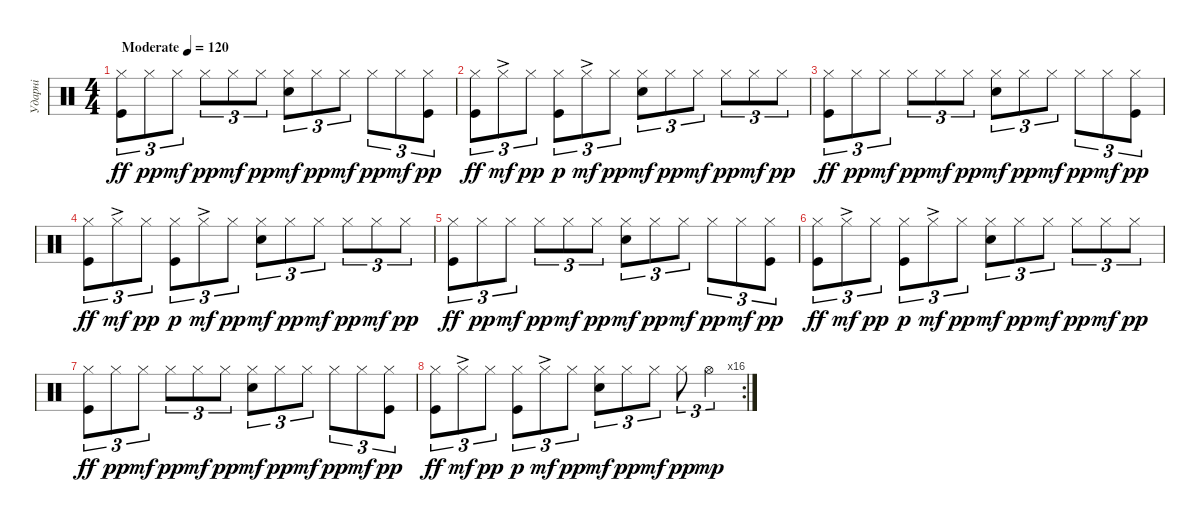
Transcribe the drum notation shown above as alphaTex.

\track ("Ударні" "Ударні") {instrument percussion}
\staff {score}
\articulation defaults
\ts (4 4)
\tempo (120 "Moderate")
\clef neutral
\ks c
("Hi-Hat (closed)" "Kick (hit)").8{tu (3 2) dy ff} "Hi-Hat (closed)".8{tu (3 2) dy pp} "Hi-Hat (closed)".8{tu (3 2) dy mf} "Hi-Hat (closed)".8{tu (3 2) dy pp} "Hi-Hat (closed)".8{tu (3 2) dy mf} "Hi-Hat (closed)".8{tu (3 2) dy pp} ("Hi-Hat (closed)" "Snare (hit) 2").8{tu (3 2) dy mf} "Hi-Hat (closed)".8{tu (3 2) dy pp} "Hi-Hat (closed)".8{tu (3 2) dy mf} "Hi-Hat (closed)".8{tu (3 2) dy pp} "Hi-Hat (closed)".8{tu (3 2) dy mf} ("Hi-Hat (closed)" "Kick (hit)").8{tu (3 2) dy pp} |
("Hi-Hat (closed)" "Kick (hit)").8{tu (3 2) dy ff} "Hi-Hat (closed)"{ac}.8{tu (3 2) dy mf} "Hi-Hat (closed)".8{tu (3 2) dy pp} ("Hi-Hat (closed)" "Kick (hit)").8{tu (3 2) dy p} "Hi-Hat (closed)"{ac}.8{tu (3 2) dy mf} "Hi-Hat (closed)".8{tu (3 2) dy pp} ("Hi-Hat (closed)" "Snare (hit) 2").8{tu (3 2) dy mf} "Hi-Hat (closed)".8{tu (3 2) dy pp} "Hi-Hat (closed)".8{tu (3 2) dy mf} "Hi-Hat (closed)".8{tu (3 2) dy pp} "Hi-Hat (closed)".8{tu (3 2) dy mf} "Hi-Hat (closed)".8{tu (3 2) dy pp} |
("Hi-Hat (closed)" "Kick (hit)").8{tu (3 2) dy ff} "Hi-Hat (closed)".8{tu (3 2) dy pp} "Hi-Hat (closed)".8{tu (3 2) dy mf} "Hi-Hat (closed)".8{tu (3 2) dy pp} "Hi-Hat (closed)".8{tu (3 2) dy mf} "Hi-Hat (closed)".8{tu (3 2) dy pp} ("Hi-Hat (closed)" "Snare (hit) 2").8{tu (3 2) dy mf} "Hi-Hat (closed)".8{tu (3 2) dy pp} "Hi-Hat (closed)".8{tu (3 2) dy mf} "Hi-Hat (closed)".8{tu (3 2) dy pp} "Hi-Hat (closed)".8{tu (3 2) dy mf} ("Hi-Hat (closed)" "Kick (hit)").8{tu (3 2) dy pp} |
("Hi-Hat (closed)" "Kick (hit)").8{tu (3 2) dy ff} "Hi-Hat (closed)"{ac}.8{tu (3 2) dy mf} "Hi-Hat (closed)".8{tu (3 2) dy pp} ("Hi-Hat (closed)" "Kick (hit)").8{tu (3 2) dy p} "Hi-Hat (closed)"{ac}.8{tu (3 2) dy mf} "Hi-Hat (closed)".8{tu (3 2) dy pp} ("Hi-Hat (closed)" "Snare (hit) 2").8{tu (3 2) dy mf} "Hi-Hat (closed)".8{tu (3 2) dy pp} "Hi-Hat (closed)".8{tu (3 2) dy mf} "Hi-Hat (closed)".8{tu (3 2) dy pp} "Hi-Hat (closed)".8{tu (3 2) dy mf} "Hi-Hat (closed)".8{tu (3 2) dy pp} |
("Hi-Hat (closed)" "Kick (hit)").8{tu (3 2) dy ff} "Hi-Hat (closed)".8{tu (3 2) dy pp} "Hi-Hat (closed)".8{tu (3 2) dy mf} "Hi-Hat (closed)".8{tu (3 2) dy pp} "Hi-Hat (closed)".8{tu (3 2) dy mf} "Hi-Hat (closed)".8{tu (3 2) dy pp} ("Hi-Hat (closed)" "Snare (hit) 2").8{tu (3 2) dy mf} "Hi-Hat (closed)".8{tu (3 2) dy pp} "Hi-Hat (closed)".8{tu (3 2) dy mf} "Hi-Hat (closed)".8{tu (3 2) dy pp} "Hi-Hat (closed)".8{tu (3 2) dy mf} ("Hi-Hat (closed)" "Kick (hit)").8{tu (3 2) dy pp} |
("Hi-Hat (closed)" "Kick (hit)").8{tu (3 2) dy ff} "Hi-Hat (closed)"{ac}.8{tu (3 2) dy mf} "Hi-Hat (closed)".8{tu (3 2) dy pp} ("Hi-Hat (closed)" "Kick (hit)").8{tu (3 2) dy p} "Hi-Hat (closed)"{ac}.8{tu (3 2) dy mf} "Hi-Hat (closed)".8{tu (3 2) dy pp} ("Hi-Hat (closed)" "Snare (hit) 2").8{tu (3 2) dy mf} "Hi-Hat (closed)".8{tu (3 2) dy pp} "Hi-Hat (closed)".8{tu (3 2) dy mf} "Hi-Hat (closed)".8{tu (3 2) dy pp} "Hi-Hat (closed)".8{tu (3 2) dy mf} "Hi-Hat (closed)".8{tu (3 2) dy pp} |
("Hi-Hat (closed)" "Kick (hit)").8{tu (3 2) dy ff} "Hi-Hat (closed)".8{tu (3 2) dy pp} "Hi-Hat (closed)".8{tu (3 2) dy mf} "Hi-Hat (closed)".8{tu (3 2) dy pp} "Hi-Hat (closed)".8{tu (3 2) dy mf} "Hi-Hat (closed)".8{tu (3 2) dy pp} ("Hi-Hat (closed)" "Snare (hit) 2").8{tu (3 2) dy mf} "Hi-Hat (closed)".8{tu (3 2) dy pp} "Hi-Hat (closed)".8{tu (3 2) dy mf} "Hi-Hat (closed)".8{tu (3 2) dy pp} "Hi-Hat (closed)".8{tu (3 2) dy mf} ("Hi-Hat (closed)" "Kick (hit)").8{tu (3 2) dy pp} |
\rc 16
("Hi-Hat (closed)" "Kick (hit)").8{tu (3 2) dy ff} "Hi-Hat (closed)"{ac}.8{tu (3 2) dy mf} "Hi-Hat (closed)".8{tu (3 2) dy pp} ("Hi-Hat (closed)" "Kick (hit)").8{tu (3 2) dy p} "Hi-Hat (closed)"{ac}.8{tu (3 2) dy mf} "Hi-Hat (closed)".8{tu (3 2) dy pp} ("Hi-Hat (closed)" "Snare (hit) 2").8{tu (3 2) dy mf} "Hi-Hat (closed)".8{tu (3 2) dy pp} "Hi-Hat (closed)".8{tu (3 2) dy mf} "Hi-Hat (closed)".8{tu (3 2) dy pp} "Hi-Hat (open)".4{tu (3 2) dy mp}
